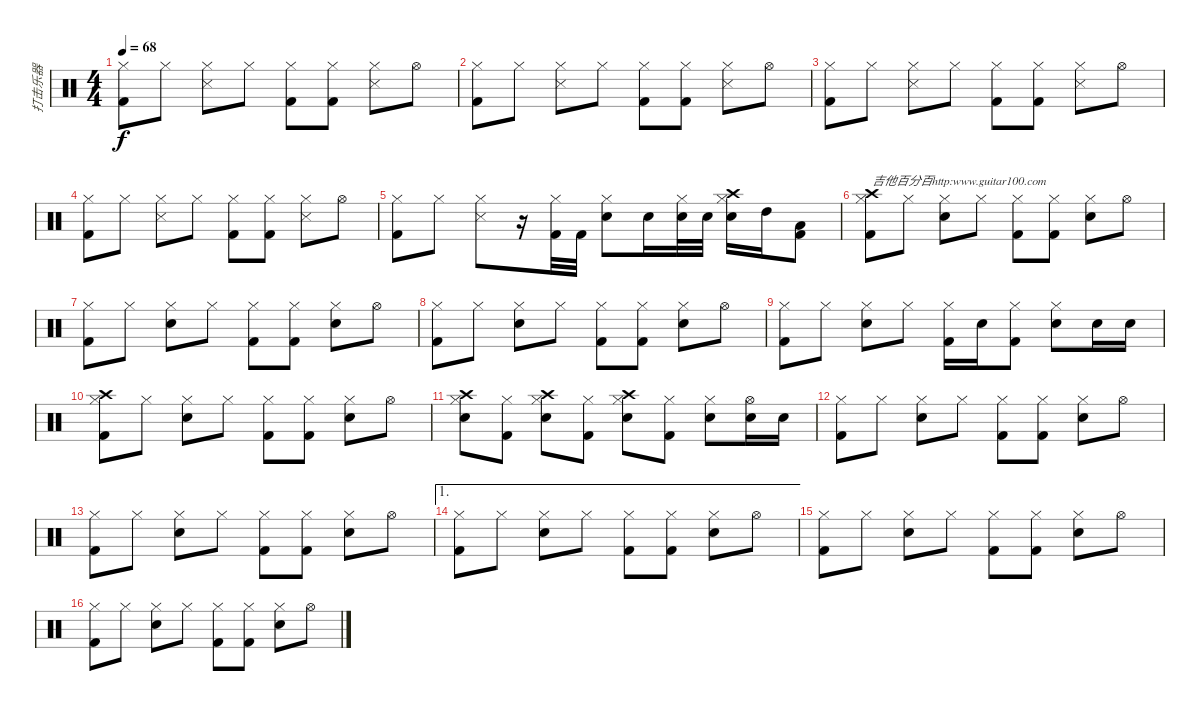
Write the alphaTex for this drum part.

\track ("打击乐器" "打击乐器") {instrument percussion}
\staff {score}
\articulation defaults
\ts (4 4)
\tempo 68
\clef neutral
\ks c
("Hi-Hat (closed)" "Kick (hit) 2").8{dy f} "Hi-Hat (closed)".8 ("Hi-Hat (closed)" "Snare (side stick) 3").8 "Hi-Hat (closed)".8 ("Hi-Hat (closed)" "Kick (hit) 2").8 ("Hi-Hat (closed)" "Kick (hit) 2").8 ("Hi-Hat (closed)" "Snare (side stick) 3").8 "Hi-Hat (open)".8 |
("Hi-Hat (closed)" "Kick (hit) 2").8 "Hi-Hat (closed)".8 ("Hi-Hat (closed)" "Snare (side stick) 3").8 "Hi-Hat (closed)".8 ("Hi-Hat (closed)" "Kick (hit) 2").8 ("Hi-Hat (closed)" "Kick (hit) 2").8 ("Hi-Hat (closed)" "Snare (side stick) 3").8 "Hi-Hat (open)".8 |
("Hi-Hat (closed)" "Kick (hit) 2").8 "Hi-Hat (closed)".8 ("Hi-Hat (closed)" "Snare (side stick) 3").8 "Hi-Hat (closed)".8 ("Hi-Hat (closed)" "Kick (hit) 2").8 ("Hi-Hat (closed)" "Kick (hit) 2").8 ("Hi-Hat (closed)" "Snare (side stick) 3").8 "Hi-Hat (open)".8 |
("Hi-Hat (closed)" "Kick (hit) 2").8 "Hi-Hat (closed)".8 ("Hi-Hat (closed)" "Snare (side stick) 3").8 "Hi-Hat (closed)".8 ("Hi-Hat (closed)" "Kick (hit) 2").8 ("Hi-Hat (closed)" "Kick (hit) 2").8 ("Hi-Hat (closed)" "Snare (side stick) 3").8 "Hi-Hat (open)".8 |
("Hi-Hat (closed)" "Kick (hit) 2").8 "Hi-Hat (closed)".8 ("Hi-Hat (closed)" "Snare (side stick) 3").8 r.16 ("Hi-Hat (closed)" "Kick (hit) 2").32 "Kick (hit) 2".32 ("Hi-Hat (closed)" "Electric Snare (hit)").8 "Electric Snare (hit)".16 ("Hi-Hat (closed)" "Electric Snare (hit)").32 "Electric Snare (hit)".32 ("Hi-Hat (closed)" "Electric Snare (hit)" "Crash high (hit)").16 "High Tom (hit)".16 ("Kick (hit) 2" "Low Tom (hit)").8 |
("Hi-Hat (closed)" "Kick (hit) 2" "Crash high (hit)").8{txt "吉他百分百http:www.guitar100.com"} "Hi-Hat (closed)".8 ("Hi-Hat (closed)" "Electric Snare (hit)").8 "Hi-Hat (closed)".8 ("Hi-Hat (closed)" "Kick (hit) 2").8 ("Hi-Hat (closed)" "Kick (hit) 2").8 ("Hi-Hat (closed)" "Electric Snare (hit)").8 "Hi-Hat (open)".8 |
("Hi-Hat (closed)" "Kick (hit) 2").8 "Hi-Hat (closed)".8 ("Hi-Hat (closed)" "Electric Snare (hit)").8 "Hi-Hat (closed)".8 ("Hi-Hat (closed)" "Kick (hit) 2").8 ("Hi-Hat (closed)" "Kick (hit) 2").8 ("Hi-Hat (closed)" "Electric Snare (hit)").8 "Hi-Hat (open)".8 |
("Hi-Hat (closed)" "Kick (hit) 2").8 "Hi-Hat (closed)".8 ("Hi-Hat (closed)" "Electric Snare (hit)").8 "Hi-Hat (closed)".8 ("Hi-Hat (closed)" "Kick (hit) 2").8 ("Hi-Hat (closed)" "Kick (hit) 2").8 ("Hi-Hat (closed)" "Electric Snare (hit)").8 "Hi-Hat (open)".8 |
("Hi-Hat (closed)" "Kick (hit) 2").8 "Hi-Hat (closed)".8 ("Hi-Hat (closed)" "Electric Snare (hit)").8 "Hi-Hat (closed)".8 ("Hi-Hat (closed)" "Kick (hit) 2").16 "Electric Snare (hit)".16 ("Hi-Hat (closed)" "Kick (hit) 2").8 ("Hi-Hat (closed)" "Electric Snare (hit)").8 "Electric Snare (hit)".16 "Electric Snare (hit)".16 |
("Hi-Hat (closed)" "Kick (hit) 2" "Crash high (hit)").8 "Hi-Hat (closed)".8 ("Hi-Hat (closed)" "Electric Snare (hit)").8 "Hi-Hat (closed)".8 ("Hi-Hat (closed)" "Kick (hit) 2").8 ("Hi-Hat (closed)" "Kick (hit) 2").8 ("Hi-Hat (closed)" "Electric Snare (hit)").8 "Hi-Hat (open)".8 |
("Hi-Hat (closed)" "Electric Snare (hit)" "Crash high (hit)").8 ("Hi-Hat (closed)" "Kick (hit) 2").8 ("Hi-Hat (closed)" "Electric Snare (hit)" "Crash high (hit)").8 ("Hi-Hat (closed)" "Kick (hit) 2").8 ("Hi-Hat (closed)" "Electric Snare (hit)" "Crash high (hit)").8 ("Hi-Hat (closed)" "Kick (hit) 2").8 ("Hi-Hat (closed)" "Electric Snare (hit)").8 ("Hi-Hat (open)" "Electric Snare (hit)").16 "Electric Snare (hit)".16 |
("Hi-Hat (closed)" "Kick (hit) 2").8 "Hi-Hat (closed)".8 ("Hi-Hat (closed)" "Electric Snare (hit)").8 "Hi-Hat (closed)".8 ("Hi-Hat (closed)" "Kick (hit) 2").8 ("Hi-Hat (closed)" "Kick (hit) 2").8 ("Hi-Hat (closed)" "Electric Snare (hit)").8 "Hi-Hat (open)".8 |
("Hi-Hat (closed)" "Kick (hit) 2").8 "Hi-Hat (closed)".8 ("Hi-Hat (closed)" "Electric Snare (hit)").8 "Hi-Hat (closed)".8 ("Hi-Hat (closed)" "Kick (hit) 2").8 ("Hi-Hat (closed)" "Kick (hit) 2").8 ("Hi-Hat (closed)" "Electric Snare (hit)").8 "Hi-Hat (open)".8 |
\ae 1
("Hi-Hat (closed)" "Kick (hit) 2").8 "Hi-Hat (closed)".8 ("Hi-Hat (closed)" "Electric Snare (hit)").8 "Hi-Hat (closed)".8 ("Hi-Hat (closed)" "Kick (hit) 2").8 ("Hi-Hat (closed)" "Kick (hit) 2").8 ("Hi-Hat (closed)" "Electric Snare (hit)").8 "Hi-Hat (open)".8 |
("Hi-Hat (closed)" "Kick (hit) 2").8 "Hi-Hat (closed)".8 ("Hi-Hat (closed)" "Electric Snare (hit)").8 "Hi-Hat (closed)".8 ("Hi-Hat (closed)" "Kick (hit) 2").8 ("Hi-Hat (closed)" "Kick (hit) 2").8 ("Hi-Hat (closed)" "Electric Snare (hit)").8 "Hi-Hat (open)".8 |
("Hi-Hat (closed)" "Kick (hit) 2").8 "Hi-Hat (closed)".8 ("Hi-Hat (closed)" "Electric Snare (hit)").8 "Hi-Hat (closed)".8 ("Hi-Hat (closed)" "Kick (hit) 2").8 ("Hi-Hat (closed)" "Kick (hit) 2").8 ("Hi-Hat (closed)" "Electric Snare (hit)").8 "Hi-Hat (open)".8
